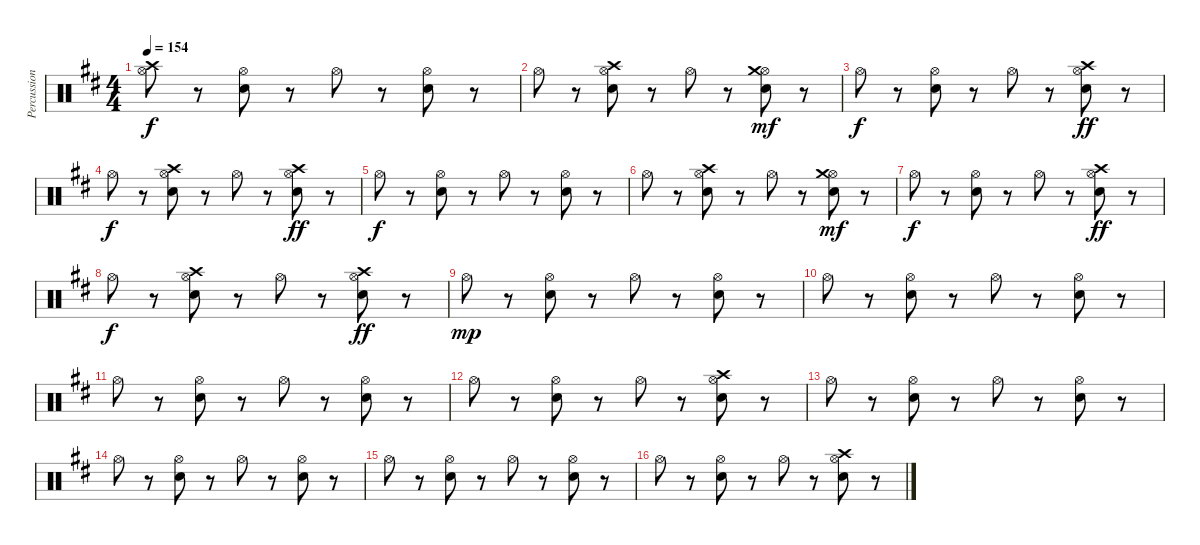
\track ("Percussion (Mike Felumlee" "Percussion") {instrument percussion}
\staff {score}
\articulation defaults
\ts (4 4)
\tempo 154
\clef neutral
\ks bminor
("Hi-Hat (open)" "Crash high (hit)").8{dy f} r.8 ("Hi-Hat (open)" "Electric Snare (hit)").8 r.8 "Hi-Hat (open)".8 r.8 ("Hi-Hat (open)" "Electric Snare (hit)").8 r.8 |
"Hi-Hat (open)".8 r.8 ("Hi-Hat (open)" "Electric Snare (hit)" "Crash high (hit)").8 r.8 "Hi-Hat (open)".8 r.8 ("Hi-Hat (open)" "Electric Snare (hit)" "Crash medium (hit)").8{dy mf} r.8 |
"Hi-Hat (open)".8{dy f} r.8 ("Hi-Hat (open)" "Electric Snare (hit)").8 r.8 "Hi-Hat (open)".8 r.8 ("Hi-Hat (open)" "Electric Snare (hit)" "Crash high (hit)").8{dy ff} r.8 |
"Hi-Hat (open)".8{dy f} r.8 ("Hi-Hat (open)" "Electric Snare (hit)" "Crash high (hit)").8 r.8 "Hi-Hat (open)".8 r.8 ("Hi-Hat (open)" "Electric Snare (hit)" "Crash high (hit)").8{dy ff} r.8 |
"Hi-Hat (open)".8{dy f} r.8 ("Hi-Hat (open)" "Electric Snare (hit)").8 r.8 "Hi-Hat (open)".8 r.8 ("Hi-Hat (open)" "Electric Snare (hit)").8 r.8 |
"Hi-Hat (open)".8 r.8 ("Hi-Hat (open)" "Electric Snare (hit)" "Crash high (hit)").8 r.8 "Hi-Hat (open)".8 r.8 ("Hi-Hat (open)" "Electric Snare (hit)" "Crash medium (hit)").8{dy mf} r.8 |
"Hi-Hat (open)".8{dy f} r.8 ("Hi-Hat (open)" "Electric Snare (hit)").8 r.8 "Hi-Hat (open)".8 r.8 ("Hi-Hat (open)" "Electric Snare (hit)" "Crash high (hit)").8{dy ff} r.8 |
"Hi-Hat (open)".8{dy f} r.8 ("Hi-Hat (open)" "Electric Snare (hit)" "Crash high (hit)").8 r.8 "Hi-Hat (open)".8 r.8 ("Hi-Hat (open)" "Electric Snare (hit)" "Crash high (hit)").8{dy ff} r.8 |
"Hi-Hat (open)".8{dy mp} r.8 ("Hi-Hat (open)" "Electric Snare (hit)").8 r.8 "Hi-Hat (open)".8 r.8 ("Hi-Hat (open)" "Electric Snare (hit)").8 r.8 |
"Hi-Hat (open)".8 r.8 ("Hi-Hat (open)" "Electric Snare (hit)").8 r.8 "Hi-Hat (open)".8 r.8 ("Hi-Hat (open)" "Electric Snare (hit)").8 r.8 |
"Hi-Hat (open)".8 r.8 ("Hi-Hat (open)" "Electric Snare (hit)").8 r.8 "Hi-Hat (open)".8 r.8 ("Hi-Hat (open)" "Electric Snare (hit)").8 r.8 |
"Hi-Hat (open)".8 r.8 ("Hi-Hat (open)" "Electric Snare (hit)").8 r.8 "Hi-Hat (open)".8 r.8 ("Hi-Hat (open)" "Electric Snare (hit)" "Crash high (hit)").8 r.8 |
"Hi-Hat (open)".8 r.8 ("Hi-Hat (open)" "Electric Snare (hit)").8 r.8 "Hi-Hat (open)".8 r.8 ("Hi-Hat (open)" "Electric Snare (hit)").8 r.8 |
"Hi-Hat (open)".8 r.8 ("Hi-Hat (open)" "Electric Snare (hit)").8 r.8 "Hi-Hat (open)".8 r.8 ("Hi-Hat (open)" "Electric Snare (hit)").8 r.8 |
"Hi-Hat (open)".8 r.8 ("Hi-Hat (open)" "Electric Snare (hit)").8 r.8 "Hi-Hat (open)".8 r.8 ("Hi-Hat (open)" "Electric Snare (hit)").8 r.8 |
"Hi-Hat (open)".8 r.8 ("Hi-Hat (open)" "Electric Snare (hit)").8 r.8 "Hi-Hat (open)".8 r.8 ("Hi-Hat (open)" "Electric Snare (hit)" "Crash high (hit)").8 r.8
